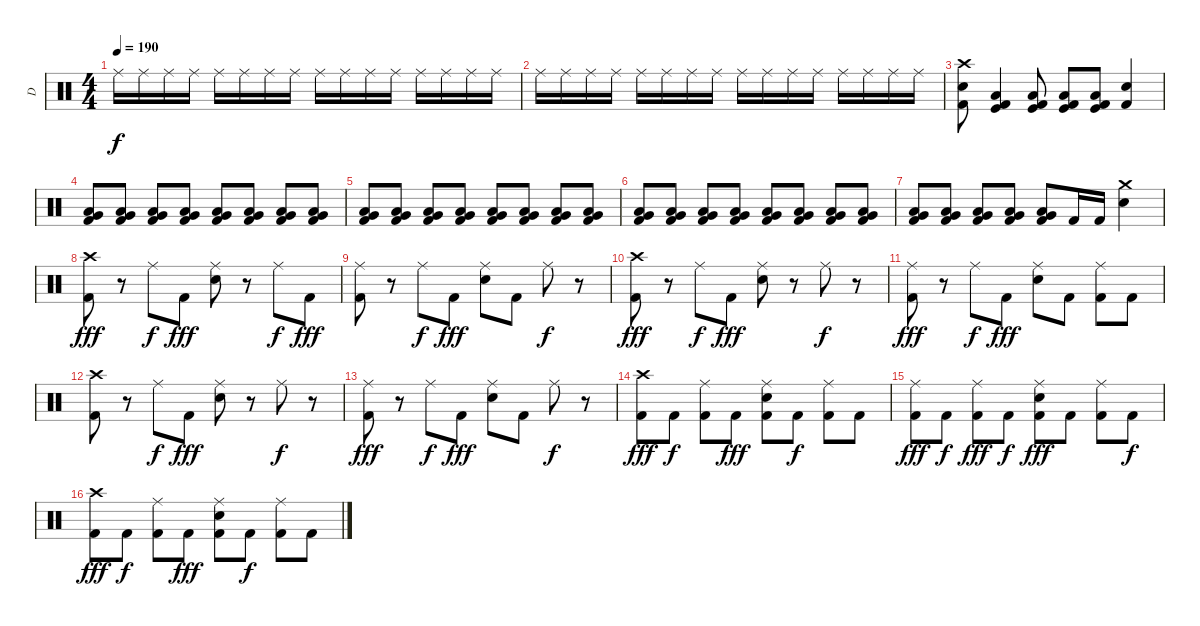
\track ("D" "D") {instrument percussion}
\staff {score}
\articulation defaults
\ts (4 4)
\tempo 190
\clef neutral
\ks c "Ride (middle)".16{dy f} "Ride (middle)".16 "Ride (middle)".16 "Ride (middle)".16 "Ride (middle)".16 "Ride (middle)".16 "Ride (middle)".16 "Ride (middle)".16 "Ride (middle)".16 "Ride (middle)".16 "Ride (middle)".16 "Ride (middle)".16 "Ride (middle)".16 "Ride (middle)".16 "Ride (middle)".16 "Ride (middle)".16
|
"Ride (middle)".16 "Ride (middle)".16 "Ride (middle)".16 "Ride (middle)".16 "Ride (middle)".16 "Ride (middle)".16 "Ride (middle)".16 "Ride (middle)".16 "Ride (middle)".16 "Ride (middle)".16 "Ride (middle)".16 "Ride (middle)".16 "Ride (middle)".16 "Ride (middle)".16 "Ride (middle)".16 "Ride (middle)".16 |
("Crash high (hit)" "Electric Snare (hit)" "Kick (hit) 2").8 ("Low Floor Tom (hit)" "Kick (hit)" "Kick (hit) 2").4 ("Low Floor Tom (hit)" "Kick (hit)" "Kick (hit) 2").8 ("Low Floor Tom (hit)" "Kick (hit)" "Kick (hit) 2").8 ("Low Floor Tom (hit)" "Kick (hit)" "Kick (hit) 2").8 ("Electric Snare (hit)" "Kick (hit) 2").4 |
("Low Floor Tom (hit)" "Very Low Tom (hit)" "Kick (hit) 2").8 ("Low Floor Tom (hit)" "Very Low Tom (hit)" "Kick (hit) 2").8 ("Low Floor Tom (hit)" "Very Low Tom (hit)" "Kick (hit) 2").8 ("Low Floor Tom (hit)" "Very Low Tom (hit)" "Kick (hit) 2").8 ("Low Floor Tom (hit)" "Very Low Tom (hit)" "Kick (hit) 2").8 ("Low Floor Tom (hit)" "Very Low Tom (hit)" "Kick (hit) 2").8 ("Low Floor Tom (hit)" "Very Low Tom (hit)" "Kick (hit) 2").8 ("Low Floor Tom (hit)" "Very Low Tom (hit)" "Kick (hit) 2").8 |
("Low Floor Tom (hit)" "Very Low Tom (hit)" "Kick (hit) 2").8 ("Low Floor Tom (hit)" "Very Low Tom (hit)" "Kick (hit) 2").8 ("Low Floor Tom (hit)" "Very Low Tom (hit)" "Kick (hit) 2").8 ("Low Floor Tom (hit)" "Very Low Tom (hit)" "Kick (hit) 2").8 ("Low Floor Tom (hit)" "Very Low Tom (hit)" "Kick (hit) 2").8 ("Low Floor Tom (hit)" "Very Low Tom (hit)" "Kick (hit) 2").8 ("Low Floor Tom (hit)" "Very Low Tom (hit)" "Kick (hit) 2").8 ("Low Floor Tom (hit)" "Very Low Tom (hit)" "Kick (hit) 2").8 |
("Low Floor Tom (hit)" "Very Low Tom (hit)" "Kick (hit) 2").8 ("Low Floor Tom (hit)" "Very Low Tom (hit)" "Kick (hit) 2").8 ("Low Floor Tom (hit)" "Very Low Tom (hit)" "Kick (hit) 2").8 ("Low Floor Tom (hit)" "Very Low Tom (hit)" "Kick (hit) 2").8 ("Low Floor Tom (hit)" "Very Low Tom (hit)" "Kick (hit) 2").8 ("Low Floor Tom (hit)" "Very Low Tom (hit)" "Kick (hit) 2").8 ("Low Floor Tom (hit)" "Very Low Tom (hit)" "Kick (hit) 2").8 ("Low Floor Tom (hit)" "Very Low Tom (hit)" "Kick (hit) 2").8 |
("Low Floor Tom (hit)" "Very Low Tom (hit)" "Kick (hit) 2").8 ("Low Floor Tom (hit)" "Very Low Tom (hit)" "Kick (hit) 2").8 ("Low Floor Tom (hit)" "Very Low Tom (hit)" "Kick (hit) 2").8 ("Low Floor Tom (hit)" "Very Low Tom (hit)" "Kick (hit) 2").8 ("Low Floor Tom (hit)" "Very Low Tom (hit)" "Kick (hit) 2").8 "Kick (hit) 2".16 "Kick (hit) 2".16 ("Crash medium (hit)" "Electric Snare (hit)").4 |
("Crash high (hit)" "Kick (hit) 2").8{dy fff} r.8 "Ride (middle)".8{dy f} "Kick (hit) 2".8{dy fff} ("Ride (middle)" "Electric Snare (hit)").8 r.8 "Ride (middle)".8{dy f} "Kick (hit) 2".8{dy fff} |
("Ride (middle)" "Kick (hit) 2").8 r.8 "Ride (middle)".8{dy f} "Kick (hit) 2".8{dy fff} ("Ride (middle)" "Electric Snare (hit)").8 "Kick (hit) 2".8 "Ride (middle)".8{dy f} r.8 |
("Crash high (hit)" "Kick (hit) 2").8{dy fff} r.8 "Ride (middle)".8{dy f} "Kick (hit) 2".8{dy fff} ("Ride (middle)" "Electric Snare (hit)").8 r.8 "Ride (middle)".8{dy f} r.8 |
("Ride (middle)" "Kick (hit) 2").8{dy fff} r.8 "Ride (middle)".8{dy f} "Kick (hit) 2".8{dy fff} ("Ride (middle)" "Electric Snare (hit)").8 "Kick (hit) 2".8 ("Ride (middle)" "Kick (hit) 2").8 "Kick (hit) 2".8 |
("Crash high (hit)" "Kick (hit) 2").8 r.8 "Ride (middle)".8{dy f} "Kick (hit) 2".8{dy fff} ("Ride (middle)" "Electric Snare (hit)").8 r.8 "Ride (middle)".8{dy f} r.8 |
("Ride (middle)" "Kick (hit) 2").8{dy fff} r.8 "Ride (middle)".8{dy f} "Kick (hit) 2".8{dy fff} ("Ride (middle)" "Electric Snare (hit)").8 "Kick (hit) 2".8 "Ride (middle)".8{dy f} r.8 |
("Crash high (hit)" "Kick (hit) 2").8{dy fff} "Kick (hit) 2".8{dy f} ("Ride (middle)" "Kick (hit) 2").8 "Kick (hit) 2".8{dy fff} ("Ride (middle)" "Electric Snare (hit)" "Kick (hit) 2").8 "Kick (hit) 2".8{dy f} ("Ride (middle)" "Kick (hit) 2").8 "Kick (hit) 2".8 |
("Ride (middle)" "Kick (hit) 2").8{dy fff} "Kick (hit) 2".8{dy f} ("Ride (middle)" "Kick (hit) 2").8{dy fff} "Kick (hit) 2".8{dy f} ("Ride (middle)" "Electric Snare (hit)" "Kick (hit) 2").8{dy fff} "Kick (hit) 2".8 ("Ride (middle)" "Kick (hit) 2").8 "Kick (hit) 2".8{dy f} |
("Crash high (hit)" "Kick (hit) 2").8{dy fff} "Kick (hit) 2".8{dy f} ("Ride (middle)" "Kick (hit) 2").8 "Kick (hit) 2".8{dy fff} ("Ride (middle)" "Electric Snare (hit)" "Kick (hit) 2").8 "Kick (hit) 2".8{dy f} ("Ride (middle)" "Kick (hit) 2").8 "Kick (hit) 2".8
